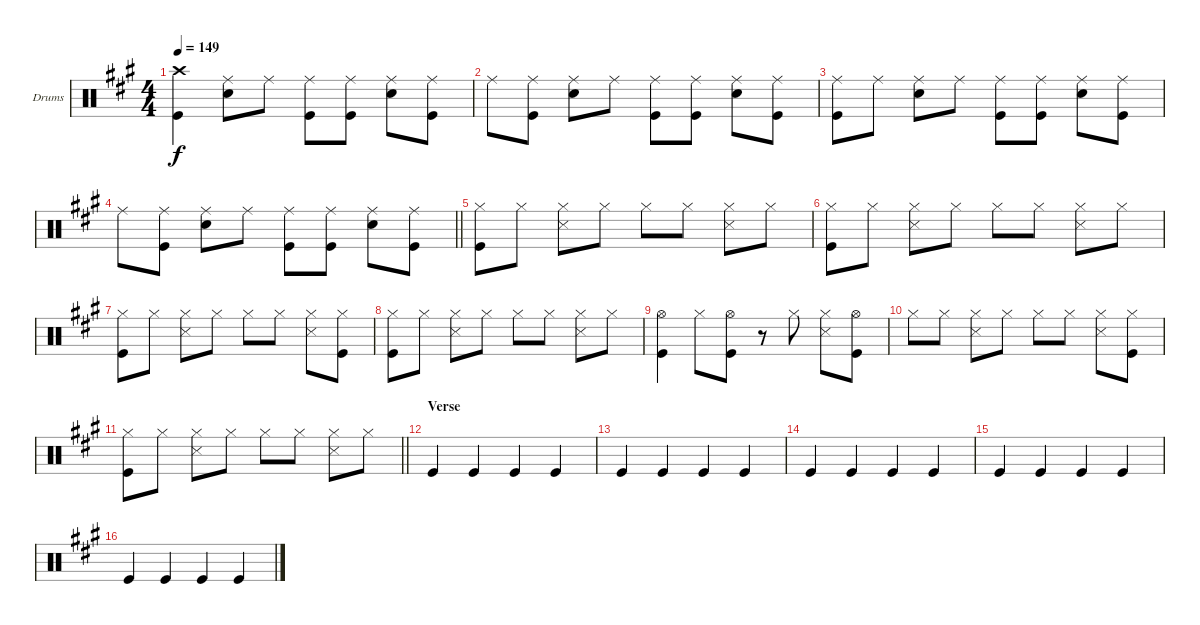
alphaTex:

\defaultSystemsLayout 4
\bracketExtendMode groupsimilarinstruments
\firstSystemTrackNameOrientation horizontal
\otherSystemsTrackNameOrientation horizontal
\track ("Drums" "Drums") {instrument percussion}
\staff {score}
\articulation defaults
\ts (4 4)
\tempo 149
\clef neutral
\ks a
("Kick (hit)" "Crash high (hit)").4{dy f} ("Ride (middle)" "Snare (hit) 2").8 "Ride (middle)".8 ("Ride (middle)" "Kick (hit)").8 ("Ride (middle)" "Kick (hit)").8 ("Ride (middle)" "Snare (hit) 2").8 ("Ride (middle)" "Kick (hit)").8 |
"Ride (middle)".8 ("Ride (middle)" "Kick (hit)").8 ("Ride (middle)" "Snare (hit) 2").8 "Ride (middle)".8 ("Ride (middle)" "Kick (hit)").8 ("Ride (middle)" "Kick (hit)").8 ("Ride (middle)" "Snare (hit) 2").8 ("Ride (middle)" "Kick (hit)").8 |
("Kick (hit)" "Ride (middle)").8 "Ride (middle)".8 ("Ride (middle)" "Snare (hit) 2").8 "Ride (middle)".8 ("Ride (middle)" "Kick (hit)").8 ("Ride (middle)" "Kick (hit)").8 ("Ride (middle)" "Snare (hit) 2").8 ("Ride (middle)" "Kick (hit)").8 |
\barLineRight lightlight "Ride (middle)".8
("Ride (middle)" "Kick (hit)").8 ("Ride (middle)" "Snare (hit) 2").8 "Ride (middle)".8 ("Ride (middle)" "Kick (hit)").8 ("Ride (middle)" "Kick (hit)").8 ("Ride (middle)" "Snare (hit) 2").8 ("Ride (middle)" "Kick (hit)").8 |
("Kick (hit)" "Hi-Hat (closed)").8 "Hi-Hat (closed)".8 ("Hi-Hat (closed)" "Snare (side stick) 3").8 "Hi-Hat (closed)".8 "Hi-Hat (closed)".8 "Hi-Hat (closed)".8 ("Hi-Hat (closed)" "Snare (side stick) 3").8 "Hi-Hat (closed)".8 |
("Kick (hit)" "Hi-Hat (closed)").8 "Hi-Hat (closed)".8 ("Hi-Hat (closed)" "Snare (side stick) 3").8 "Hi-Hat (closed)".8 "Hi-Hat (closed)".8 "Hi-Hat (closed)".8 ("Hi-Hat (closed)" "Snare (side stick) 3").8 "Hi-Hat (closed)".8 |
("Kick (hit)" "Hi-Hat (closed)").8 "Hi-Hat (closed)".8 ("Hi-Hat (closed)" "Snare (side stick) 3").8 "Hi-Hat (closed)".8 "Hi-Hat (closed)".8 "Hi-Hat (closed)".8 ("Hi-Hat (closed)" "Snare (side stick) 3").8 ("Hi-Hat (closed)" "Kick (hit)").8 |
("Kick (hit)" "Hi-Hat (closed)").8 "Hi-Hat (closed)".8 ("Hi-Hat (closed)" "Snare (side stick) 3").8 "Hi-Hat (closed)".8 "Hi-Hat (closed)".8 "Hi-Hat (closed)".8 ("Hi-Hat (closed)" "Snare (side stick) 3").8 "Hi-Hat (closed)".8 |
("Kick (hit)" "Hi-Hat (open)").4 "Hi-Hat (closed)".8 ("Kick (hit)" "Hi-Hat (open)").8 r.8 "Hi-Hat (closed)".8 ("Hi-Hat (closed)" "Snare (side stick) 3").8 ("Hi-Hat (open)" "Kick (hit)").8 |
"Hi-Hat (closed)".8 "Hi-Hat (closed)".8 ("Hi-Hat (closed)" "Snare (side stick) 3").8 "Hi-Hat (closed)".8 "Hi-Hat (closed)".8 "Hi-Hat (closed)".8 ("Hi-Hat (closed)" "Snare (side stick) 3").8 ("Hi-Hat (closed)" "Kick (hit)").8 |
\barLineRight lightlight
("Kick (hit)" "Hi-Hat (closed)").8 "Hi-Hat (closed)".8 ("Hi-Hat (closed)" "Snare (side stick) 3").8 "Hi-Hat (closed)".8 "Hi-Hat (closed)".8 "Hi-Hat (closed)".8 ("Hi-Hat (closed)" "Snare (side stick) 3").8 "Hi-Hat (closed)".8 |
\section ("" "Verse")
"Kick (hit)".4 "Kick (hit)".4 "Kick (hit)".4 "Kick (hit)".4 |
"Kick (hit)".4 "Kick (hit)".4 "Kick (hit)".4 "Kick (hit)".4 |
"Kick (hit)".4 "Kick (hit)".4 "Kick (hit)".4 "Kick (hit)".4 |
"Kick (hit)".4 "Kick (hit)".4 "Kick (hit)".4 "Kick (hit)".4 |
"Kick (hit)".4 "Kick (hit)".4 "Kick (hit)".4 "Kick (hit)".4
